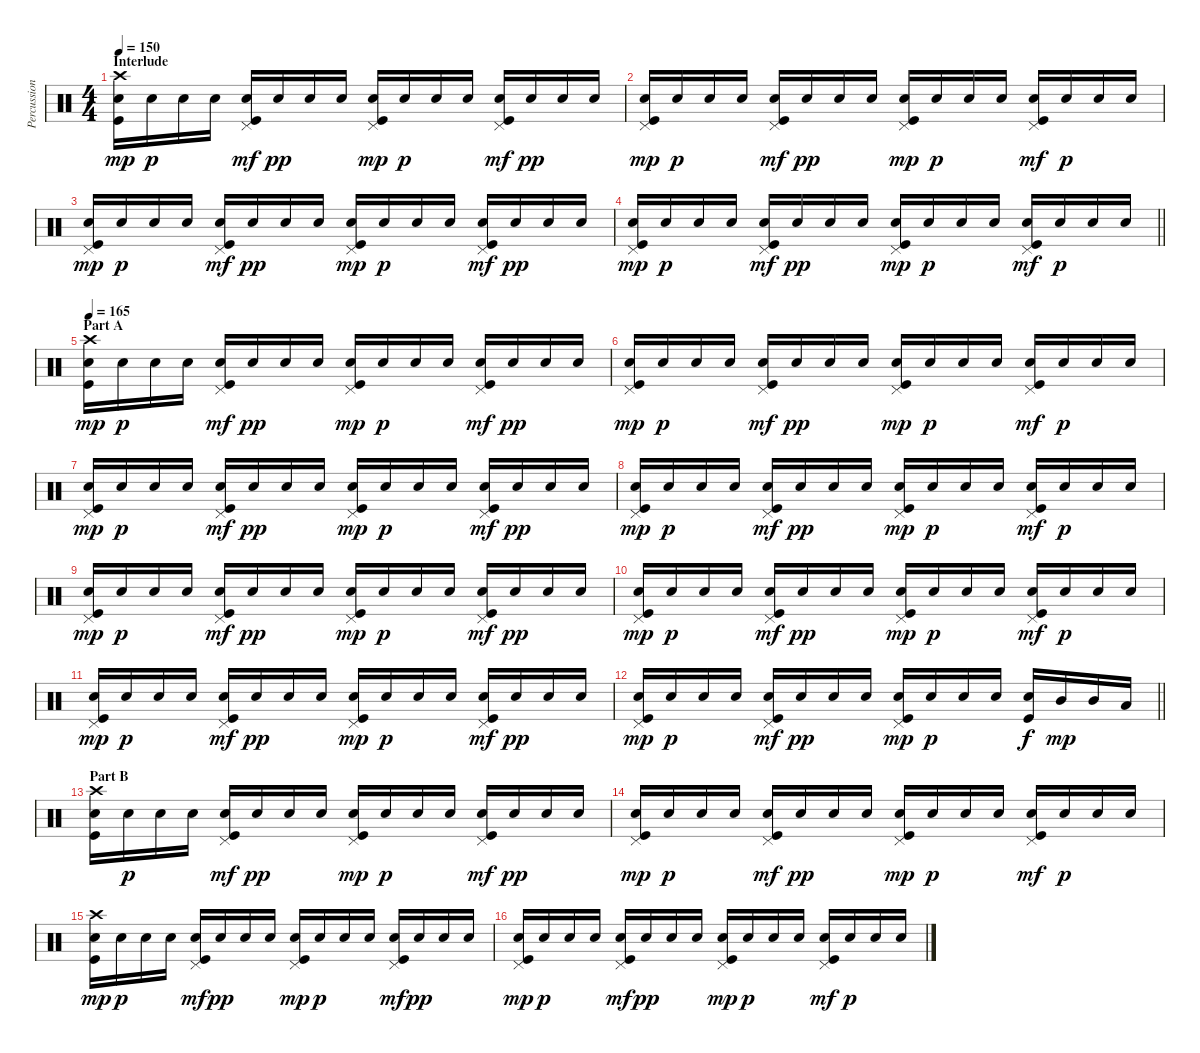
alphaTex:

\track ("Percussion" "Percussion") {instrument percussion}
\staff {score}
\articulation defaults
\ts (4 4)
\section ("" "Interlude")
\tempo 150
\clef neutral
\ks c
("Crash high (hit)" "Electric Snare (hit)" "Kick (hit)").16{dy mp} "Electric Snare (hit)".16{dy p} "Electric Snare (hit)".16 "Electric Snare (hit)".16 ("Pedal Hi-Hat (hit)" "Electric Snare (hit)" "Kick (hit)").16{dy mf} "Electric Snare (hit)".16{dy pp} "Electric Snare (hit)".16 "Electric Snare (hit)".16 ("Pedal Hi-Hat (hit)" "Electric Snare (hit)" "Kick (hit)").16{dy mp} "Electric Snare (hit)".16{dy p} "Electric Snare (hit)".16 "Electric Snare (hit)".16 ("Pedal Hi-Hat (hit)" "Electric Snare (hit)" "Kick (hit)").16{dy mf} "Electric Snare (hit)".16{dy pp} "Electric Snare (hit)".16 "Electric Snare (hit)".16 |
("Pedal Hi-Hat (hit)" "Electric Snare (hit)" "Kick (hit)").16{dy mp} "Electric Snare (hit)".16{dy p} "Electric Snare (hit)".16 "Electric Snare (hit)".16 ("Pedal Hi-Hat (hit)" "Electric Snare (hit)" "Kick (hit)").16{dy mf} "Electric Snare (hit)".16{dy pp} "Electric Snare (hit)".16 "Electric Snare (hit)".16 ("Pedal Hi-Hat (hit)" "Electric Snare (hit)" "Kick (hit)").16{dy mp} "Electric Snare (hit)".16{dy p} "Electric Snare (hit)".16 "Electric Snare (hit)".16 ("Pedal Hi-Hat (hit)" "Electric Snare (hit)" "Kick (hit)").16{dy mf} "Electric Snare (hit)".16{dy p} "Electric Snare (hit)".16 "Electric Snare (hit)".16 |
("Pedal Hi-Hat (hit)" "Electric Snare (hit)" "Kick (hit)").16{dy mp} "Electric Snare (hit)".16{dy p} "Electric Snare (hit)".16 "Electric Snare (hit)".16 ("Pedal Hi-Hat (hit)" "Electric Snare (hit)" "Kick (hit)").16{dy mf} "Electric Snare (hit)".16{dy pp} "Electric Snare (hit)".16 "Electric Snare (hit)".16 ("Pedal Hi-Hat (hit)" "Electric Snare (hit)" "Kick (hit)").16{dy mp} "Electric Snare (hit)".16{dy p} "Electric Snare (hit)".16 "Electric Snare (hit)".16 ("Pedal Hi-Hat (hit)" "Electric Snare (hit)" "Kick (hit)").16{dy mf} "Electric Snare (hit)".16{dy pp} "Electric Snare (hit)".16 "Electric Snare (hit)".16 |
\barLineRight lightlight
("Pedal Hi-Hat (hit)" "Electric Snare (hit)" "Kick (hit)").16{dy mp} "Electric Snare (hit)".16{dy p} "Electric Snare (hit)".16 "Electric Snare (hit)".16 ("Pedal Hi-Hat (hit)" "Electric Snare (hit)" "Kick (hit)").16{dy mf} "Electric Snare (hit)".16{dy pp} "Electric Snare (hit)".16 "Electric Snare (hit)".16 ("Pedal Hi-Hat (hit)" "Electric Snare (hit)" "Kick (hit)").16{dy mp} "Electric Snare (hit)".16{dy p} "Electric Snare (hit)".16 "Electric Snare (hit)".16 ("Pedal Hi-Hat (hit)" "Electric Snare (hit)" "Kick (hit)").16{dy mf} "Electric Snare (hit)".16{dy p} "Electric Snare (hit)".16 "Electric Snare (hit)".16 |
\section ("" "Part A")
\tempo 165
("Crash high (hit)" "Electric Snare (hit)" "Kick (hit)").16{dy mp} "Electric Snare (hit)".16{dy p} "Electric Snare (hit)".16 "Electric Snare (hit)".16 ("Pedal Hi-Hat (hit)" "Electric Snare (hit)" "Kick (hit)").16{dy mf} "Electric Snare (hit)".16{dy pp} "Electric Snare (hit)".16 "Electric Snare (hit)".16 ("Pedal Hi-Hat (hit)" "Electric Snare (hit)" "Kick (hit)").16{dy mp} "Electric Snare (hit)".16{dy p} "Electric Snare (hit)".16 "Electric Snare (hit)".16 ("Pedal Hi-Hat (hit)" "Electric Snare (hit)" "Kick (hit)").16{dy mf} "Electric Snare (hit)".16{dy pp} "Electric Snare (hit)".16 "Electric Snare (hit)".16 |
("Pedal Hi-Hat (hit)" "Electric Snare (hit)" "Kick (hit)").16{dy mp} "Electric Snare (hit)".16{dy p} "Electric Snare (hit)".16 "Electric Snare (hit)".16 ("Pedal Hi-Hat (hit)" "Electric Snare (hit)" "Kick (hit)").16{dy mf} "Electric Snare (hit)".16{dy pp} "Electric Snare (hit)".16 "Electric Snare (hit)".16 ("Pedal Hi-Hat (hit)" "Electric Snare (hit)" "Kick (hit)").16{dy mp} "Electric Snare (hit)".16{dy p} "Electric Snare (hit)".16 "Electric Snare (hit)".16 ("Pedal Hi-Hat (hit)" "Electric Snare (hit)" "Kick (hit)").16{dy mf} "Electric Snare (hit)".16{dy p} "Electric Snare (hit)".16 "Electric Snare (hit)".16 |
("Pedal Hi-Hat (hit)" "Electric Snare (hit)" "Kick (hit)").16{dy mp} "Electric Snare (hit)".16{dy p} "Electric Snare (hit)".16 "Electric Snare (hit)".16 ("Pedal Hi-Hat (hit)" "Electric Snare (hit)" "Kick (hit)").16{dy mf} "Electric Snare (hit)".16{dy pp} "Electric Snare (hit)".16 "Electric Snare (hit)".16 ("Pedal Hi-Hat (hit)" "Electric Snare (hit)" "Kick (hit)").16{dy mp} "Electric Snare (hit)".16{dy p} "Electric Snare (hit)".16 "Electric Snare (hit)".16 ("Pedal Hi-Hat (hit)" "Electric Snare (hit)" "Kick (hit)").16{dy mf} "Electric Snare (hit)".16{dy pp} "Electric Snare (hit)".16 "Electric Snare (hit)".16 |
("Pedal Hi-Hat (hit)" "Electric Snare (hit)" "Kick (hit)").16{dy mp} "Electric Snare (hit)".16{dy p} "Electric Snare (hit)".16 "Electric Snare (hit)".16 ("Pedal Hi-Hat (hit)" "Electric Snare (hit)" "Kick (hit)").16{dy mf} "Electric Snare (hit)".16{dy pp} "Electric Snare (hit)".16 "Electric Snare (hit)".16 ("Pedal Hi-Hat (hit)" "Electric Snare (hit)" "Kick (hit)").16{dy mp} "Electric Snare (hit)".16{dy p} "Electric Snare (hit)".16 "Electric Snare (hit)".16 ("Pedal Hi-Hat (hit)" "Electric Snare (hit)" "Kick (hit)").16{dy mf} "Electric Snare (hit)".16{dy p} "Electric Snare (hit)".16 "Electric Snare (hit)".16 |
("Pedal Hi-Hat (hit)" "Electric Snare (hit)" "Kick (hit)").16{dy mp} "Electric Snare (hit)".16{dy p} "Electric Snare (hit)".16 "Electric Snare (hit)".16 ("Pedal Hi-Hat (hit)" "Electric Snare (hit)" "Kick (hit)").16{dy mf} "Electric Snare (hit)".16{dy pp} "Electric Snare (hit)".16 "Electric Snare (hit)".16 ("Pedal Hi-Hat (hit)" "Electric Snare (hit)" "Kick (hit)").16{dy mp} "Electric Snare (hit)".16{dy p} "Electric Snare (hit)".16 "Electric Snare (hit)".16 ("Pedal Hi-Hat (hit)" "Electric Snare (hit)" "Kick (hit)").16{dy mf} "Electric Snare (hit)".16{dy pp} "Electric Snare (hit)".16 "Electric Snare (hit)".16 |
("Pedal Hi-Hat (hit)" "Electric Snare (hit)" "Kick (hit)").16{dy mp} "Electric Snare (hit)".16{dy p} "Electric Snare (hit)".16 "Electric Snare (hit)".16 ("Pedal Hi-Hat (hit)" "Electric Snare (hit)" "Kick (hit)").16{dy mf} "Electric Snare (hit)".16{dy pp} "Electric Snare (hit)".16 "Electric Snare (hit)".16 ("Pedal Hi-Hat (hit)" "Electric Snare (hit)" "Kick (hit)").16{dy mp} "Electric Snare (hit)".16{dy p} "Electric Snare (hit)".16 "Electric Snare (hit)".16 ("Pedal Hi-Hat (hit)" "Electric Snare (hit)" "Kick (hit)").16{dy mf} "Electric Snare (hit)".16{dy p} "Electric Snare (hit)".16 "Electric Snare (hit)".16 |
("Pedal Hi-Hat (hit)" "Electric Snare (hit)" "Kick (hit)").16{dy mp} "Electric Snare (hit)".16{dy p} "Electric Snare (hit)".16 "Electric Snare (hit)".16 ("Pedal Hi-Hat (hit)" "Electric Snare (hit)" "Kick (hit)").16{dy mf} "Electric Snare (hit)".16{dy pp} "Electric Snare (hit)".16 "Electric Snare (hit)".16 ("Pedal Hi-Hat (hit)" "Electric Snare (hit)" "Kick (hit)").16{dy mp} "Electric Snare (hit)".16{dy p} "Electric Snare (hit)".16 "Electric Snare (hit)".16 ("Pedal Hi-Hat (hit)" "Electric Snare (hit)" "Kick (hit)").16{dy mf} "Electric Snare (hit)".16{dy pp} "Electric Snare (hit)".16 "Electric Snare (hit)".16 |
\barLineRight lightlight
("Pedal Hi-Hat (hit)" "Electric Snare (hit)" "Kick (hit)").16{dy mp} "Electric Snare (hit)".16{dy p} "Electric Snare (hit)".16 "Electric Snare (hit)".16 ("Pedal Hi-Hat (hit)" "Electric Snare (hit)" "Kick (hit)").16{dy mf} "Electric Snare (hit)".16{dy pp} "Electric Snare (hit)".16 "Electric Snare (hit)".16 ("Pedal Hi-Hat (hit)" "Electric Snare (hit)" "Kick (hit)").16{dy mp} "Electric Snare (hit)".16{dy p} "Electric Snare (hit)".16 "Electric Snare (hit)".16 ("Electric Snare (hit)" "Kick (hit)").16{dy f} "Mid Tom (hit)".16{dy mp} "Mid Tom (hit)".16 "Low Tom (hit)".16 |
\section ("" "Part B")
("Crash high (hit)" "Electric Snare (hit)" "Kick (hit)").16 "Electric Snare (hit)".16{dy p} "Electric Snare (hit)".16 "Electric Snare (hit)".16 ("Pedal Hi-Hat (hit)" "Electric Snare (hit)" "Kick (hit)").16{dy mf} "Electric Snare (hit)".16{dy pp} "Electric Snare (hit)".16 "Electric Snare (hit)".16 ("Pedal Hi-Hat (hit)" "Electric Snare (hit)" "Kick (hit)").16{dy mp} "Electric Snare (hit)".16{dy p} "Electric Snare (hit)".16 "Electric Snare (hit)".16 ("Pedal Hi-Hat (hit)" "Electric Snare (hit)" "Kick (hit)").16{dy mf} "Electric Snare (hit)".16{dy pp} "Electric Snare (hit)".16 "Electric Snare (hit)".16 |
("Pedal Hi-Hat (hit)" "Electric Snare (hit)" "Kick (hit)").16{dy mp} "Electric Snare (hit)".16{dy p} "Electric Snare (hit)".16 "Electric Snare (hit)".16 ("Pedal Hi-Hat (hit)" "Electric Snare (hit)" "Kick (hit)").16{dy mf} "Electric Snare (hit)".16{dy pp} "Electric Snare (hit)".16 "Electric Snare (hit)".16 ("Pedal Hi-Hat (hit)" "Electric Snare (hit)" "Kick (hit)").16{dy mp} "Electric Snare (hit)".16{dy p} "Electric Snare (hit)".16 "Electric Snare (hit)".16 ("Pedal Hi-Hat (hit)" "Electric Snare (hit)" "Kick (hit)").16{dy mf} "Electric Snare (hit)".16{dy p} "Electric Snare (hit)".16 "Electric Snare (hit)".16 |
("Crash high (hit)" "Electric Snare (hit)" "Kick (hit)").16{dy mp} "Electric Snare (hit)".16{dy p} "Electric Snare (hit)".16 "Electric Snare (hit)".16 ("Pedal Hi-Hat (hit)" "Electric Snare (hit)" "Kick (hit)").16{dy mf} "Electric Snare (hit)".16{dy pp} "Electric Snare (hit)".16 "Electric Snare (hit)".16 ("Pedal Hi-Hat (hit)" "Electric Snare (hit)" "Kick (hit)").16{dy mp} "Electric Snare (hit)".16{dy p} "Electric Snare (hit)".16 "Electric Snare (hit)".16 ("Pedal Hi-Hat (hit)" "Electric Snare (hit)" "Kick (hit)").16{dy mf} "Electric Snare (hit)".16{dy pp} "Electric Snare (hit)".16 "Electric Snare (hit)".16 |
("Pedal Hi-Hat (hit)" "Electric Snare (hit)" "Kick (hit)").16{dy mp} "Electric Snare (hit)".16{dy p} "Electric Snare (hit)".16 "Electric Snare (hit)".16 ("Pedal Hi-Hat (hit)" "Electric Snare (hit)" "Kick (hit)").16{dy mf} "Electric Snare (hit)".16{dy pp} "Electric Snare (hit)".16 "Electric Snare (hit)".16 ("Pedal Hi-Hat (hit)" "Electric Snare (hit)" "Kick (hit)").16{dy mp} "Electric Snare (hit)".16{dy p} "Electric Snare (hit)".16 "Electric Snare (hit)".16 ("Pedal Hi-Hat (hit)" "Electric Snare (hit)" "Kick (hit)").16{dy mf} "Electric Snare (hit)".16{dy p} "Electric Snare (hit)".16 "Electric Snare (hit)".16
